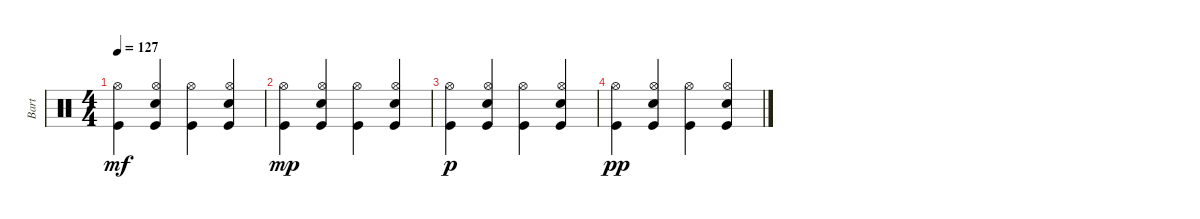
\track ("Bart" "Bart") {instrument percussion}
\staff {score}
\articulation defaults
\ts (4 4)
\tempo 127
\clef neutral
\ks c
("Kick (hit)" "Hi-Hat (open)").4{dy mf} ("Kick (hit)" "Electric Snare (hit)" "Hi-Hat (open)").4 ("Kick (hit)" "Hi-Hat (open)").4 ("Kick (hit)" "Electric Snare (hit)" "Hi-Hat (open)").4 |
("Kick (hit)" "Hi-Hat (open)").4{dy mp} ("Kick (hit)" "Electric Snare (hit)" "Hi-Hat (open)").4 ("Kick (hit)" "Hi-Hat (open)").4 ("Kick (hit)" "Electric Snare (hit)" "Hi-Hat (open)").4 |
("Kick (hit)" "Hi-Hat (open)").4{dy p} ("Kick (hit)" "Electric Snare (hit)" "Hi-Hat (open)").4 ("Kick (hit)" "Hi-Hat (open)").4 ("Kick (hit)" "Electric Snare (hit)" "Hi-Hat (open)").4 |
("Kick (hit)" "Hi-Hat (open)").4{dy pp} ("Kick (hit)" "Electric Snare (hit)" "Hi-Hat (open)").4 ("Kick (hit)" "Hi-Hat (open)").4 ("Kick (hit)" "Electric Snare (hit)" "Hi-Hat (open)").4
